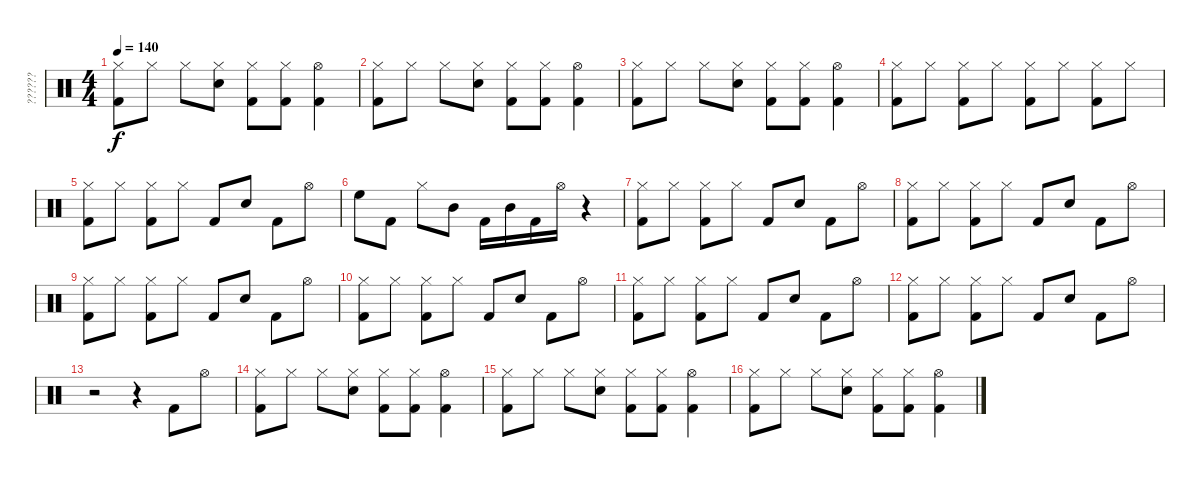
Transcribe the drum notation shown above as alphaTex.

\track ("??????" "??????") {instrument percussion}
\staff {score}
\articulation defaults
\ts (4 4)
\tempo 140
\clef neutral
\ks c
("Hi-Hat (closed)" "Kick (hit) 2").8{dy f} "Hi-Hat (closed)".8 "Hi-Hat (closed)".8 ("Hi-Hat (closed)" "Snare (hit) 2").8 ("Hi-Hat (closed)" "Kick (hit) 2").8 ("Hi-Hat (closed)" "Kick (hit) 2").8 ("Hi-Hat (open)" "Kick (hit) 2").4 |
("Hi-Hat (closed)" "Kick (hit) 2").8 "Hi-Hat (closed)".8 "Hi-Hat (closed)".8 ("Hi-Hat (closed)" "Snare (hit) 2").8 ("Hi-Hat (closed)" "Kick (hit) 2").8 ("Hi-Hat (closed)" "Kick (hit) 2").8 ("Hi-Hat (open)" "Kick (hit) 2").4 |
("Hi-Hat (closed)" "Kick (hit) 2").8 "Hi-Hat (closed)".8 "Hi-Hat (closed)".8 ("Hi-Hat (closed)" "Snare (hit) 2").8 ("Hi-Hat (closed)" "Kick (hit) 2").8 ("Hi-Hat (closed)" "Kick (hit) 2").8 ("Hi-Hat (open)" "Kick (hit) 2").4 |
("Hi-Hat (closed)" "Kick (hit) 2").8 "Hi-Hat (closed)".8 ("Hi-Hat (closed)" "Kick (hit) 2").8 "Hi-Hat (closed)".8 ("Hi-Hat (closed)" "Kick (hit) 2").8 "Hi-Hat (closed)".8 ("Hi-Hat (closed)" "Kick (hit) 2").8 "Hi-Hat (closed)".8 |
("Hi-Hat (closed)" "Kick (hit) 2").8 "Hi-Hat (closed)".8 ("Hi-Hat (closed)" "Kick (hit) 2").8 "Hi-Hat (closed)".8 "Kick (hit) 2".8 "Snare (hit) 2".8 "Kick (hit) 2".8 "Hi-Hat (open)".8 |
"High Floor Tom (hit)".8 "Kick (hit) 2".8 "Hi-Hat (closed)".8 "Mid Tom (hit)".8 "Kick (hit) 2".16 "Mid Tom (hit)".16 "Kick (hit) 2".16 "Hi-Hat (open)".16 r.4 |
("Hi-Hat (closed)" "Kick (hit) 2").8 "Hi-Hat (closed)".8 ("Hi-Hat (closed)" "Kick (hit) 2").8 "Hi-Hat (closed)".8 "Kick (hit) 2".8 "Snare (hit) 2".8 "Kick (hit) 2".8 "Hi-Hat (open)".8 |
("Hi-Hat (closed)" "Kick (hit) 2").8 "Hi-Hat (closed)".8 ("Hi-Hat (closed)" "Kick (hit) 2").8 "Hi-Hat (closed)".8 "Kick (hit) 2".8 "Snare (hit) 2".8 "Kick (hit) 2".8 "Hi-Hat (open)".8 |
("Hi-Hat (closed)" "Kick (hit) 2").8 "Hi-Hat (closed)".8 ("Hi-Hat (closed)" "Kick (hit) 2").8 "Hi-Hat (closed)".8 "Kick (hit) 2".8 "Snare (hit) 2".8 "Kick (hit) 2".8 "Hi-Hat (open)".8 |
("Hi-Hat (closed)" "Kick (hit) 2").8 "Hi-Hat (closed)".8 ("Hi-Hat (closed)" "Kick (hit) 2").8 "Hi-Hat (closed)".8 "Kick (hit) 2".8 "Snare (hit) 2".8 "Kick (hit) 2".8 "Hi-Hat (open)".8 |
("Hi-Hat (closed)" "Kick (hit) 2").8 "Hi-Hat (closed)".8 ("Hi-Hat (closed)" "Kick (hit) 2").8 "Hi-Hat (closed)".8 "Kick (hit) 2".8 "Snare (hit) 2".8 "Kick (hit) 2".8 "Hi-Hat (open)".8 |
("Hi-Hat (closed)" "Kick (hit) 2").8 "Hi-Hat (closed)".8 ("Hi-Hat (closed)" "Kick (hit) 2").8 "Hi-Hat (closed)".8 "Kick (hit) 2".8 "Snare (hit) 2".8 "Kick (hit) 2".8 "Hi-Hat (open)".8 |
r.2 r.4 "Kick (hit) 2".8 "Hi-Hat (open)".8 |
("Hi-Hat (closed)" "Kick (hit) 2").8 "Hi-Hat (closed)".8 "Hi-Hat (closed)".8 ("Hi-Hat (closed)" "Snare (hit) 2").8 ("Hi-Hat (closed)" "Kick (hit) 2").8 ("Hi-Hat (closed)" "Kick (hit) 2").8 ("Hi-Hat (open)" "Kick (hit) 2").4 |
("Hi-Hat (closed)" "Kick (hit) 2").8 "Hi-Hat (closed)".8 "Hi-Hat (closed)".8 ("Hi-Hat (closed)" "Snare (hit) 2").8 ("Hi-Hat (closed)" "Kick (hit) 2").8 ("Hi-Hat (closed)" "Kick (hit) 2").8 ("Hi-Hat (open)" "Kick (hit) 2").4 |
("Hi-Hat (closed)" "Kick (hit) 2").8 "Hi-Hat (closed)".8 "Hi-Hat (closed)".8 ("Hi-Hat (closed)" "Snare (hit) 2").8 ("Hi-Hat (closed)" "Kick (hit) 2").8 ("Hi-Hat (closed)" "Kick (hit) 2").8 ("Hi-Hat (open)" "Kick (hit) 2").4
